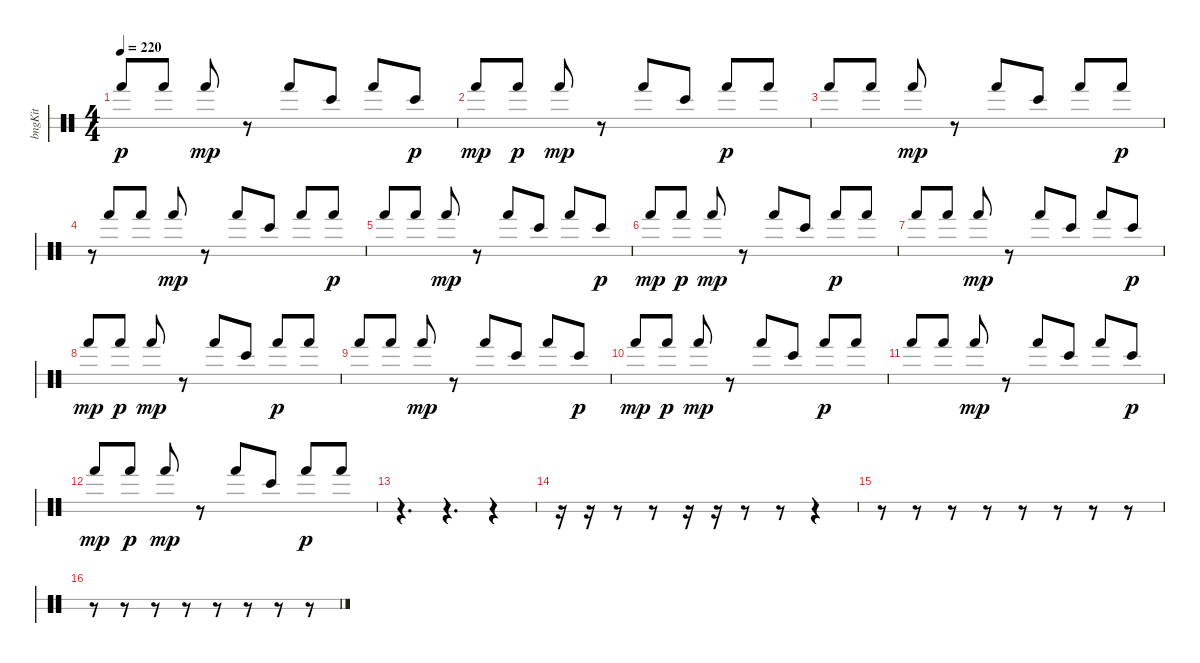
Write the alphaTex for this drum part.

\bracketExtendMode groupsimilarinstruments
\otherSystemsTrackNameOrientation horizontal
\track ("Bongos" "bngKit") {instrument percussion}
\staff {score 2}
\articulation defaults
\ts (4 4)
\tempo 220
\clef neutral
\ks c "Hand (hit)".8{dy p beam Up} "Hand (hit)".8{beam Up} "Hand (hit)".8{dy mp beam Up}
r.8{beam Up} "Hand (hit)".8{beam Up} "Bongo High (hit)".8{beam Up} "Hand (hit)".8{beam Up} "Bongo High (hit)".8{dy p beam Up} |
"Hand (hit)".8{dy mp beam Up} "Hand (hit)".8{dy p beam Up} "Hand (hit)".8{dy mp beam Up} r.8{beam Up} "Hand (hit)".8{beam Up} "Bongo High (hit)".8{beam Up} "Hand (hit)".8{dy p beam Up} "Hand (hit)".8{beam Up} |
"Hand (hit)".8{beam Up} "Hand (hit)".8{beam Up} "Hand (hit)".8{dy mp beam Up} r.8{beam Up} "Hand (hit)".8{beam Up} "Bongo High (hit)".8{beam Up} "Hand (hit)".8{beam Up} "Hand (hit)".8{dy p beam Up} |
r.8{gr beam Up} "Hand (hit)".8{beam Up} "Hand (hit)".8{beam Up} "Hand (hit)".8{dy mp beam Up} r.8{beam Up} "Hand (hit)".8{beam Up} "Bongo High (hit)".8{beam Up} "Hand (hit)".8{beam Up} "Hand (hit)".8{dy p beam Up} |
"Hand (hit)".8{beam Up} "Hand (hit)".8{beam Up} "Hand (hit)".8{dy mp beam Up} r.8{beam Up} "Hand (hit)".8{beam Up} "Bongo High (hit)".8{beam Up} "Hand (hit)".8{beam Up} "Bongo High (hit)".8{dy p beam Up} |
"Hand (hit)".8{dy mp beam Up} "Hand (hit)".8{dy p beam Up} "Hand (hit)".8{dy mp beam Up} r.8{beam Up} "Hand (hit)".8{beam Up} "Bongo High (hit)".8{beam Up} "Hand (hit)".8{dy p beam Up} "Hand (hit)".8{beam Up} |
"Hand (hit)".8{beam Up} "Hand (hit)".8{beam Up} "Hand (hit)".8{dy mp beam Up} r.8{beam Up} "Hand (hit)".8{beam Up} "Bongo High (hit)".8{beam Up} "Hand (hit)".8{beam Up} "Bongo High (hit)".8{dy p beam Up} |
"Hand (hit)".8{dy mp beam Up} "Hand (hit)".8{dy p beam Up} "Hand (hit)".8{dy mp beam Up} r.8{beam Up} "Hand (hit)".8{beam Up} "Bongo High (hit)".8{beam Up} "Hand (hit)".8{dy p beam Up} "Hand (hit)".8{beam Up} |
"Hand (hit)".8{beam Up} "Hand (hit)".8{beam Up} "Hand (hit)".8{dy mp beam Up} r.8{beam Up} "Hand (hit)".8{beam Up} "Bongo High (hit)".8{beam Up} "Hand (hit)".8{beam Up} "Bongo High (hit)".8{dy p beam Up} |
"Hand (hit)".8{dy mp beam Up} "Hand (hit)".8{dy p beam Up} "Hand (hit)".8{dy mp beam Up} r.8{beam Up} "Hand (hit)".8{beam Up} "Bongo High (hit)".8{beam Up} "Hand (hit)".8{dy p beam Up} "Hand (hit)".8{beam Up} |
"Hand (hit)".8{beam Up} "Hand (hit)".8{beam Up} "Hand (hit)".8{dy mp beam Up} r.8{beam Up} "Hand (hit)".8{beam Up} "Bongo High (hit)".8{beam Up} "Hand (hit)".8{beam Up} "Bongo High (hit)".8{dy p beam Up} |
"Hand (hit)".8{dy mp beam Up} "Hand (hit)".8{dy p beam Up} "Hand (hit)".8{dy mp beam Up} r.8{beam Up} "Hand (hit)".8{beam Up} "Bongo High (hit)".8{beam Up} "Hand (hit)".8{dy p beam Up} "Hand (hit)".8{beam Up} |
r.4{d beam Down} r.4{d beam Down} r.4{beam Down} |
r.16{beam Down} r.16{beam Down} r.8{beam Down} r.8{beam Down} r.16{beam Down} r.16{beam Down} r.8{beam Down} r.8{beam Down} r.4{beam Down} |
r.8{beam Down} r.8{beam Down} r.8{beam Down} r.8{beam Down} r.8{beam Down} r.8{beam Down} r.8{beam Down} r.8{beam Down} |
r.8{beam Down} r.8{beam Down} r.8{beam Down} r.8{beam Down} r.8{beam Down} r.8{beam Down} r.8{beam Down} r.8{beam Down}
